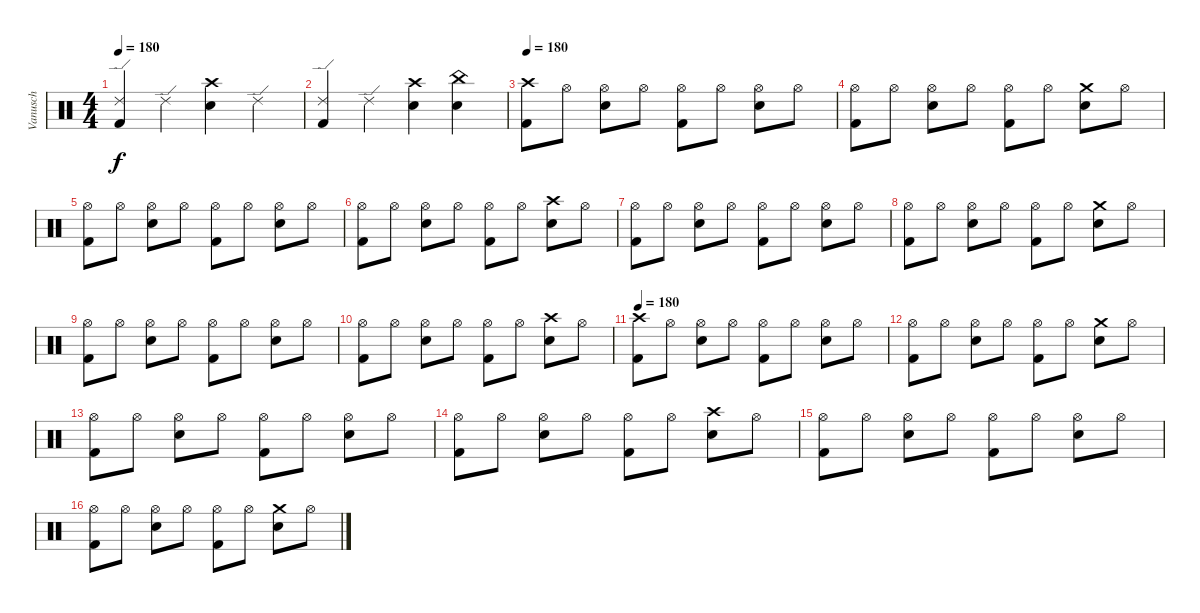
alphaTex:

\track ("Vanusch" "Vanusch") {instrument percussion}
\staff {score}
\articulation defaults
\ts (4 4)
\tempo 180
\clef neutral
\ks c
("Ride (edge) 2" "Kick (hit) 2").4{dy f} "Ride (edge) 2".4 ("Crash high (hit)" "Snare (hit) 2").4 "Ride (edge) 2".4 |
("Ride (edge) 2" "Kick (hit) 2").4 "Ride (edge) 2".4 ("Crash high (hit)" "Snare (hit) 2").4 ("China (hit)" "Snare (hit) 2").4 |
\tempo 180
("Crash high (hit)" "Kick (hit) 2").8 "Hi-Hat (open)".8 ("Hi-Hat (open)" "Snare (hit) 2").8 "Hi-Hat (open)".8 ("Hi-Hat (open)" "Kick (hit) 2").8 "Hi-Hat (open)".8 ("Hi-Hat (open)" "Snare (hit) 2").8 "Hi-Hat (open)".8 |
("Hi-Hat (open)" "Kick (hit) 2").8 "Hi-Hat (open)".8 ("Hi-Hat (open)" "Snare (hit) 2").8 "Hi-Hat (open)".8 ("Hi-Hat (open)" "Kick (hit) 2").8 "Hi-Hat (open)".8 ("Crash medium (hit)" "Snare (hit) 2").8 "Hi-Hat (open)".8 |
("Hi-Hat (open)" "Kick (hit) 2").8 "Hi-Hat (open)".8 ("Hi-Hat (open)" "Snare (hit) 2").8 "Hi-Hat (open)".8 ("Hi-Hat (open)" "Kick (hit) 2").8 "Hi-Hat (open)".8 ("Hi-Hat (open)" "Snare (hit) 2").8 "Hi-Hat (open)".8 |
("Hi-Hat (open)" "Kick (hit) 2").8 "Hi-Hat (open)".8 ("Hi-Hat (open)" "Snare (hit) 2").8 "Hi-Hat (open)".8 ("Hi-Hat (open)" "Kick (hit) 2").8 "Hi-Hat (open)".8 ("Crash high (hit)" "Snare (hit) 2").8 "Hi-Hat (open)".8 |
("Hi-Hat (open)" "Kick (hit) 2").8 "Hi-Hat (open)".8 ("Hi-Hat (open)" "Snare (hit) 2").8 "Hi-Hat (open)".8 ("Hi-Hat (open)" "Kick (hit) 2").8 "Hi-Hat (open)".8 ("Hi-Hat (open)" "Snare (hit) 2").8 "Hi-Hat (open)".8 |
("Hi-Hat (open)" "Kick (hit) 2").8 "Hi-Hat (open)".8 ("Hi-Hat (open)" "Snare (hit) 2").8 "Hi-Hat (open)".8 ("Hi-Hat (open)" "Kick (hit) 2").8 "Hi-Hat (open)".8 ("Crash medium (hit)" "Snare (hit) 2").8 "Hi-Hat (open)".8 |
("Hi-Hat (open)" "Kick (hit) 2").8 "Hi-Hat (open)".8 ("Hi-Hat (open)" "Snare (hit) 2").8 "Hi-Hat (open)".8 ("Hi-Hat (open)" "Kick (hit) 2").8 "Hi-Hat (open)".8 ("Hi-Hat (open)" "Snare (hit) 2").8 "Hi-Hat (open)".8 |
("Hi-Hat (open)" "Kick (hit) 2").8 "Hi-Hat (open)".8 ("Hi-Hat (open)" "Snare (hit) 2").8 "Hi-Hat (open)".8 ("Hi-Hat (open)" "Kick (hit) 2").8 "Hi-Hat (open)".8 ("Crash high (hit)" "Snare (hit) 2").8 "Hi-Hat (open)".8 |
\tempo 180
("Crash high (hit)" "Kick (hit) 2").8 "Hi-Hat (open)".8 ("Hi-Hat (open)" "Snare (hit) 2").8 "Hi-Hat (open)".8 ("Hi-Hat (open)" "Kick (hit) 2").8 "Hi-Hat (open)".8 ("Hi-Hat (open)" "Snare (hit) 2").8 "Hi-Hat (open)".8 |
("Hi-Hat (open)" "Kick (hit) 2").8 "Hi-Hat (open)".8 ("Hi-Hat (open)" "Snare (hit) 2").8 "Hi-Hat (open)".8 ("Hi-Hat (open)" "Kick (hit) 2").8 "Hi-Hat (open)".8 ("Crash medium (hit)" "Snare (hit) 2").8 "Hi-Hat (open)".8 |
("Hi-Hat (open)" "Kick (hit) 2").8 "Hi-Hat (open)".8 ("Hi-Hat (open)" "Snare (hit) 2").8 "Hi-Hat (open)".8 ("Hi-Hat (open)" "Kick (hit) 2").8 "Hi-Hat (open)".8 ("Hi-Hat (open)" "Snare (hit) 2").8 "Hi-Hat (open)".8 |
("Hi-Hat (open)" "Kick (hit) 2").8 "Hi-Hat (open)".8 ("Hi-Hat (open)" "Snare (hit) 2").8 "Hi-Hat (open)".8 ("Hi-Hat (open)" "Kick (hit) 2").8 "Hi-Hat (open)".8 ("Crash high (hit)" "Snare (hit) 2").8 "Hi-Hat (open)".8 |
("Hi-Hat (open)" "Kick (hit) 2").8 "Hi-Hat (open)".8 ("Hi-Hat (open)" "Snare (hit) 2").8 "Hi-Hat (open)".8 ("Hi-Hat (open)" "Kick (hit) 2").8 "Hi-Hat (open)".8 ("Hi-Hat (open)" "Snare (hit) 2").8 "Hi-Hat (open)".8 |
("Hi-Hat (open)" "Kick (hit) 2").8 "Hi-Hat (open)".8 ("Hi-Hat (open)" "Snare (hit) 2").8 "Hi-Hat (open)".8 ("Hi-Hat (open)" "Kick (hit) 2").8 "Hi-Hat (open)".8 ("Crash medium (hit)" "Snare (hit) 2").8 "Hi-Hat (open)".8
